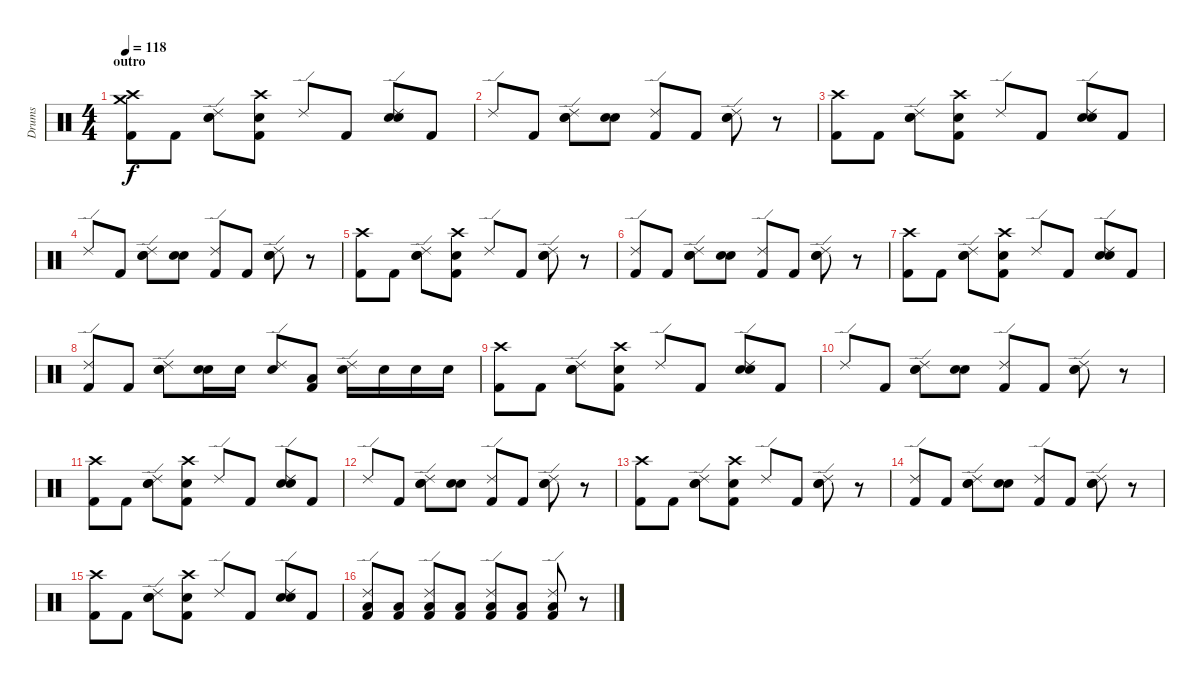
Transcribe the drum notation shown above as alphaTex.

\track ("Drums" "Drums") {instrument percussion}
\staff {score}
\articulation defaults
\ts (4 4)
\section ("" "outro")
\tempo 118
\clef neutral
\ks c
("Crash high (hit)" "Crash medium (hit)" "Kick (hit) 2").8{dy f} "Kick (hit) 2".8 ("Ride (edge) 2" "Hand Clap (hit)" "Electric Snare (hit)").8 ("Crash high (hit)" "Hand Clap (hit)" "Kick (hit) 2").8 "Ride (edge) 2".8 "Kick (hit) 2".8 ("Ride (edge) 2" "Hand Clap (hit)" "Electric Snare (hit)").8 "Kick (hit) 2".8 |
"Ride (edge) 2".8 "Kick (hit) 2".8 ("Ride (edge) 2" "Hand Clap (hit)" "Electric Snare (hit)").8 ("Electric Snare (hit)" "Hand Clap (hit)").8 ("Ride (edge) 2" "Kick (hit) 2").8 "Kick (hit) 2".8 ("Ride (edge) 2" "Hand Clap (hit)" "Electric Snare (hit)").8 r.8 |
("Crash high (hit)" "Kick (hit) 2").8 "Kick (hit) 2".8 ("Ride (edge) 2" "Hand Clap (hit)" "Electric Snare (hit)").8 ("Crash high (hit)" "Hand Clap (hit)" "Kick (hit) 2").8 "Ride (edge) 2".8 "Kick (hit) 2".8 ("Ride (edge) 2" "Hand Clap (hit)" "Electric Snare (hit)").8 "Kick (hit) 2".8 |
"Ride (edge) 2".8 "Kick (hit) 2".8 ("Ride (edge) 2" "Hand Clap (hit)" "Electric Snare (hit)").8 ("Electric Snare (hit)" "Hand Clap (hit)").8 ("Ride (edge) 2" "Kick (hit) 2").8 "Kick (hit) 2".8 ("Ride (edge) 2" "Hand Clap (hit)" "Electric Snare (hit)").8 r.8 |
("Crash high (hit)" "Kick (hit) 2").8 "Kick (hit) 2".8 ("Ride (edge) 2" "Hand Clap (hit)" "Electric Snare (hit)").8 ("Crash high (hit)" "Hand Clap (hit)" "Kick (hit) 2").8 "Ride (edge) 2".8 "Kick (hit) 2".8 ("Ride (edge) 2" "Hand Clap (hit)" "Electric Snare (hit)").8 r.8 |
("Ride (edge) 2" "Kick (hit) 2").8 "Kick (hit) 2".8 ("Ride (edge) 2" "Hand Clap (hit)" "Electric Snare (hit)").8 ("Electric Snare (hit)" "Hand Clap (hit)").8 ("Ride (edge) 2" "Kick (hit) 2").8 "Kick (hit) 2".8 ("Ride (edge) 2" "Hand Clap (hit)" "Electric Snare (hit)").8 r.8 |
("Crash high (hit)" "Kick (hit) 2").8 "Kick (hit) 2".8 ("Ride (edge) 2" "Hand Clap (hit)" "Electric Snare (hit)").8 ("Crash high (hit)" "Hand Clap (hit)" "Kick (hit) 2").8 "Ride (edge) 2".8 "Kick (hit) 2".8 ("Ride (edge) 2" "Hand Clap (hit)" "Electric Snare (hit)").8 "Kick (hit) 2".8 |
("Ride (edge) 2" "Kick (hit) 2").8 "Kick (hit) 2".8 ("Ride (edge) 2" "Hand Clap (hit)" "Electric Snare (hit)").8 ("Hand Clap (hit)" "Electric Snare (hit)").16 "Electric Snare (hit)".16 ("Ride (edge) 2" "Electric Snare (hit)").8 ("Low Tom (hit)" "Kick (hit) 2").8 ("Ride (edge) 2" "Electric Snare (hit)").16 "Electric Snare (hit)".16 "Electric Snare (hit)".16 "Electric Snare (hit)".16 |
("Crash high (hit)" "Kick (hit) 2").8 "Kick (hit) 2".8 ("Ride (edge) 2" "Hand Clap (hit)" "Electric Snare (hit)").8 ("Crash high (hit)" "Hand Clap (hit)" "Kick (hit) 2").8 "Ride (edge) 2".8 "Kick (hit) 2".8 ("Ride (edge) 2" "Hand Clap (hit)" "Electric Snare (hit)").8 "Kick (hit) 2".8 |
"Ride (edge) 2".8 "Kick (hit) 2".8 ("Ride (edge) 2" "Hand Clap (hit)" "Electric Snare (hit)").8 ("Electric Snare (hit)" "Hand Clap (hit)").8 ("Ride (edge) 2" "Kick (hit) 2").8 "Kick (hit) 2".8 ("Ride (edge) 2" "Hand Clap (hit)" "Electric Snare (hit)").8 r.8 |
("Crash high (hit)" "Kick (hit) 2").8 "Kick (hit) 2".8 ("Ride (edge) 2" "Hand Clap (hit)" "Electric Snare (hit)").8 ("Crash high (hit)" "Hand Clap (hit)" "Kick (hit) 2").8 "Ride (edge) 2".8 "Kick (hit) 2".8 ("Ride (edge) 2" "Hand Clap (hit)" "Electric Snare (hit)").8 "Kick (hit) 2".8 |
"Ride (edge) 2".8 "Kick (hit) 2".8 ("Ride (edge) 2" "Hand Clap (hit)" "Electric Snare (hit)").8 ("Electric Snare (hit)" "Hand Clap (hit)").8 ("Ride (edge) 2" "Kick (hit) 2").8 "Kick (hit) 2".8 ("Ride (edge) 2" "Hand Clap (hit)" "Electric Snare (hit)").8 r.8 |
("Crash high (hit)" "Kick (hit) 2").8 "Kick (hit) 2".8 ("Ride (edge) 2" "Hand Clap (hit)" "Electric Snare (hit)").8 ("Crash high (hit)" "Hand Clap (hit)" "Kick (hit) 2").8 "Ride (edge) 2".8 "Kick (hit) 2".8 ("Ride (edge) 2" "Hand Clap (hit)" "Electric Snare (hit)").8 r.8 |
("Ride (edge) 2" "Kick (hit) 2").8 "Kick (hit) 2".8 ("Ride (edge) 2" "Hand Clap (hit)" "Electric Snare (hit)").8 ("Electric Snare (hit)" "Hand Clap (hit)").8 ("Ride (edge) 2" "Kick (hit) 2").8 "Kick (hit) 2".8 ("Ride (edge) 2" "Hand Clap (hit)" "Electric Snare (hit)").8 r.8 |
("Crash high (hit)" "Kick (hit) 2").8 "Kick (hit) 2".8 ("Ride (edge) 2" "Hand Clap (hit)" "Electric Snare (hit)").8 ("Crash high (hit)" "Hand Clap (hit)" "Kick (hit) 2").8 "Ride (edge) 2".8 "Kick (hit) 2".8 ("Ride (edge) 2" "Hand Clap (hit)" "Electric Snare (hit)").8 "Kick (hit) 2".8 |
("Ride (edge) 2" "Low Tom (hit)" "Kick (hit) 2").8 ("Low Tom (hit)" "Kick (hit) 2").8 ("Ride (edge) 2" "Low Tom (hit)" "Kick (hit) 2").8 ("Low Tom (hit)" "Kick (hit) 2").8 ("Ride (edge) 2" "Low Tom (hit)" "Kick (hit) 2").8 ("Low Tom (hit)" "Kick (hit) 2").8 ("Ride (edge) 2" "Low Tom (hit)" "Kick (hit) 2").8 r.8
